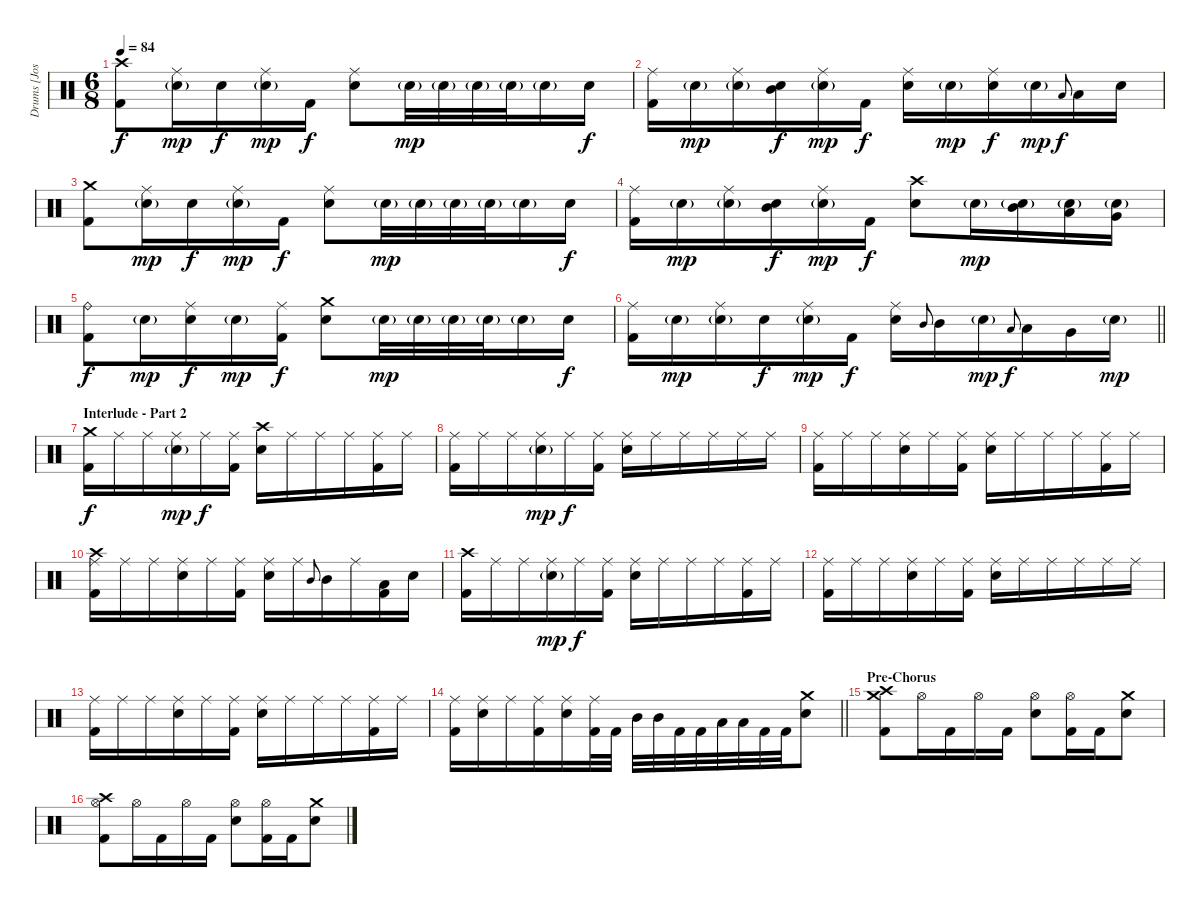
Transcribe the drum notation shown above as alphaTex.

\track ("Drums [Josh Freese]" "Drums [Jos") {instrument percussion}
\staff {score}
\articulation defaults
\ts (6 8)
\tempo 84
\clef neutral
\ks c
("Crash high (hit)" "Kick (hit) 2").8{dy f} ("Ride (middle)" "Electric Snare (hit)"{g}).16{dy mp} "Electric Snare (hit)".16{dy f} ("Ride (middle)" "Electric Snare (hit)"{g}).16{dy mp} "Kick (hit) 2".16{dy f} ("Ride (middle)" "Electric Snare (hit)").8 "Electric Snare (hit)"{g}.32{dy mp} "Electric Snare (hit)"{g}.32 "Electric Snare (hit)"{g}.32 "Electric Snare (hit)"{g}.32 "Electric Snare (hit)"{g}.16 "Electric Snare (hit)".16{dy f} |
("Ride (middle)" "Kick (hit) 2").16 "Electric Snare (hit)"{g}.16{dy mp} ("Ride (middle)" "Electric Snare (hit)"{g}).16 ("Mid Tom (hit)" "Electric Snare (hit)").16{dy f} ("Ride (middle)" "Electric Snare (hit)"{g}).16{dy mp} "Kick (hit) 2".16{dy f} ("Ride (middle)" "Electric Snare (hit)").16 "Electric Snare (hit)"{g}.16{dy mp} ("Ride (middle)" "Electric Snare (hit)").16{dy f} "Electric Snare (hit)"{g}.16{dy mp} "Low Tom (hit)".8{gr onbeat dy f} "Low Tom (hit)".16 "Electric Snare (hit)".16 |
("Crash medium (hit)" "Kick (hit) 2").8 ("Ride (middle)" "Electric Snare (hit)"{g}).16{dy mp} "Electric Snare (hit)".16{dy f} ("Ride (middle)" "Electric Snare (hit)"{g}).16{dy mp} "Kick (hit) 2".16{dy f} ("Ride (middle)" "Electric Snare (hit)").8 "Electric Snare (hit)"{g}.32{dy mp} "Electric Snare (hit)"{g}.32 "Electric Snare (hit)"{g}.32 "Electric Snare (hit)"{g}.32 "Electric Snare (hit)"{g}.16 "Electric Snare (hit)".16{dy f} |
("Ride (middle)" "Kick (hit) 2").16 "Electric Snare (hit)"{g}.16{dy mp} ("Ride (middle)" "Electric Snare (hit)"{g}).16 ("Mid Tom (hit)" "Electric Snare (hit)").16{dy f} ("Ride (middle)" "Electric Snare (hit)"{g}).16{dy mp} "Kick (hit) 2".16{dy f} ("Crash high (hit)" "Electric Snare (hit)").8 "Electric Snare (hit)"{g}.16{dy mp} ("Mid Tom (hit)" "Electric Snare (hit)"{g}).16 ("Low Tom (hit)" "Electric Snare (hit)"{g}).16 ("Very Low Tom (hit)" "Electric Snare (hit)"{g}).16 |
("Ride (bell)" "Kick (hit) 2").8{dy f} "Electric Snare (hit)"{g}.16{dy mp} ("Ride (middle)" "Electric Snare (hit)").16{dy f} "Electric Snare (hit)"{g}.16{dy mp} ("Ride (middle)" "Kick (hit) 2").16{dy f} ("Crash medium (hit)" "Electric Snare (hit)").8 "Electric Snare (hit)"{g}.32{dy mp} "Electric Snare (hit)"{g}.32 "Electric Snare (hit)"{g}.32 "Electric Snare (hit)"{g}.32 "Electric Snare (hit)"{g}.16 "Electric Snare (hit)".16{dy f} |
\barLineRight lightlight
("Ride (middle)" "Kick (hit) 2").16 "Electric Snare (hit)"{g}.16{dy mp} ("Ride (middle)" "Electric Snare (hit)"{g}).16 "Electric Snare (hit)".16{dy f} ("Ride (middle)" "Electric Snare (hit)"{g}).16{dy mp} "Kick (hit) 2".16{dy f} ("Ride (middle)" "Electric Snare (hit)").16 "Mid Tom (hit)".8{gr onbeat} "Mid Tom (hit)".16 "Electric Snare (hit)"{g}.16{dy mp} "Low Tom (hit)".8{gr onbeat dy f} "Low Tom (hit)".16 "Very Low Tom (hit)".16 "Electric Snare (hit)"{g}.16{dy mp} |
\section ("" "Interlude - Part 2")
("Crash medium (hit)" "Kick (hit) 2").16{dy f} "Ride (middle)".16 "Ride (middle)".16 ("Ride (middle)" "Electric Snare (hit)"{g}).16{dy mp} "Ride (middle)".16{dy f} ("Ride (middle)" "Kick (hit) 2").16 ("Crash high (hit)" "Electric Snare (hit)").16 "Ride (middle)".16 "Ride (middle)".16 "Ride (middle)".16 ("Ride (middle)" "Kick (hit) 2").16 "Ride (middle)".16 |
("Ride (middle)" "Kick (hit) 2").16 "Ride (middle)".16 "Ride (middle)".16 ("Ride (middle)" "Electric Snare (hit)"{g}).16{dy mp} "Ride (middle)".16{dy f} ("Ride (middle)" "Kick (hit) 2").16 ("Ride (middle)" "Electric Snare (hit)").16 "Ride (middle)".16 "Ride (middle)".16 "Ride (middle)".16 "Ride (middle)".16 "Ride (middle)".16 |
("Ride (middle)" "Kick (hit) 2").16 "Ride (middle)".16 "Ride (middle)".16 ("Ride (middle)" "Electric Snare (hit)").16 "Ride (middle)".16 ("Ride (middle)" "Kick (hit) 2").16 ("Ride (middle)" "Electric Snare (hit)").16 "Ride (middle)".16 "Ride (middle)".16 "Ride (middle)".16 ("Ride (middle)" "Kick (hit) 2").16 "Ride (middle)".16 |
("Crash high (hit)" "Ride (middle)" "Kick (hit) 2").16 "Ride (middle)".16 "Ride (middle)".16 ("Ride (middle)" "Electric Snare (hit)").16 "Ride (middle)".16 ("Ride (middle)" "Kick (hit) 2").16 ("Ride (middle)" "Electric Snare (hit)").16 "Ride (middle)".16 "Mid Tom (hit)".8{gr onbeat} "Mid Tom (hit)".16 "Ride (middle)".16 ("Low Tom (hit)" "Kick (hit) 2").16 "Electric Snare (hit)".16 |
("Crash high (hit)" "Kick (hit) 2").16 "Ride (middle)".16 "Ride (middle)".16 ("Ride (middle)" "Electric Snare (hit)"{g}).16{dy mp} "Ride (middle)".16{dy f} ("Ride (middle)" "Kick (hit) 2").16 ("Ride (middle)" "Electric Snare (hit)").16 "Ride (middle)".16 "Ride (middle)".16 "Ride (middle)".16 ("Ride (middle)" "Kick (hit) 2").16 "Ride (middle)".16 |
("Ride (middle)" "Kick (hit) 2").16 "Ride (middle)".16 "Ride (middle)".16 ("Ride (middle)" "Electric Snare (hit)").16 "Ride (middle)".16 ("Ride (middle)" "Kick (hit) 2").16 ("Ride (middle)" "Electric Snare (hit)").16 "Ride (middle)".16 "Ride (middle)".16 "Ride (middle)".16 "Ride (middle)".16 "Ride (middle)".16 |
("Ride (middle)" "Kick (hit) 2").16 "Ride (middle)".16 "Ride (middle)".16 ("Ride (middle)" "Electric Snare (hit)").16 "Ride (middle)".16 ("Ride (middle)" "Kick (hit) 2").16 ("Ride (middle)" "Electric Snare (hit)").16 "Ride (middle)".16 "Ride (middle)".16 "Ride (middle)".16 ("Ride (middle)" "Kick (hit) 2").16 "Ride (middle)".16 |
\barLineRight lightlight
("Ride (middle)" "Kick (hit) 2").16 ("Ride (middle)" "Electric Snare (hit)").16 "Ride (middle)".16 ("Ride (middle)" "Kick (hit) 2").16 ("Ride (middle)" "Electric Snare (hit)").16 ("Ride (middle)" "Kick (hit) 2").32 "Kick (hit) 2".32 "Mid Tom (hit)".32 "Mid Tom (hit)".32 "Kick (hit) 2".32 "Kick (hit) 2".32 "Low Tom (hit)".32 "Low Tom (hit)".32 "Kick (hit) 2".32 "Kick (hit) 2".32 ("Crash medium (hit)" "Electric Snare (hit)").8 |
\section ("" "Pre-Chorus")
("Crash medium (hit)" "Crash high (hit)" "Kick (hit) 2").8 "Hi-Hat (open)".16 "Kick (hit) 2".16 "Hi-Hat (open)".16 "Kick (hit) 2".16 ("Hi-Hat (open)" "Electric Snare (hit)").8 ("Hi-Hat (open)" "Kick (hit) 2").16 "Kick (hit) 2".16 ("Crash medium (hit)" "Electric Snare (hit)").8 |
("Crash high (hit)" "Hi-Hat (open)" "Kick (hit) 2").8 "Hi-Hat (open)".16 "Kick (hit) 2".16 "Hi-Hat (open)".16 "Kick (hit) 2".16 ("Hi-Hat (open)" "Electric Snare (hit)").8 ("Hi-Hat (open)" "Kick (hit) 2").16 "Kick (hit) 2".16 ("Crash medium (hit)" "Electric Snare (hit)").8
